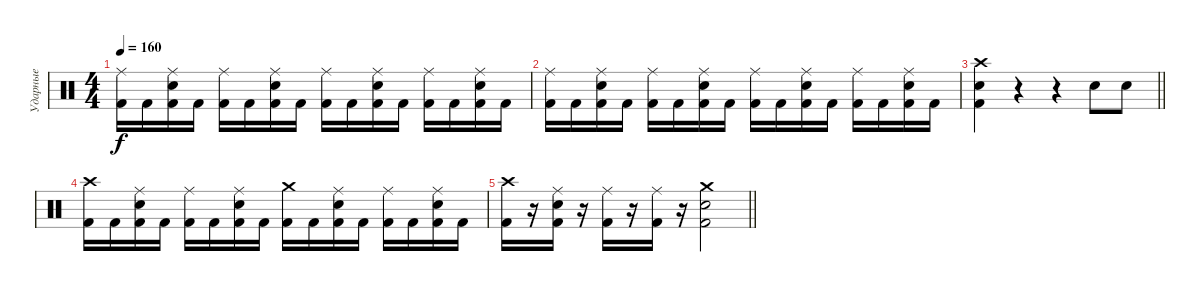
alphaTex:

\track ("Ударные" "Ударные") {instrument percussion}
\staff {score}
\articulation defaults
\ts (4 4)
\tempo 160
\clef neutral
\ks c
("Ride (middle)" "Kick (hit) 2").16{dy f} "Kick (hit) 2".16 ("Ride (middle)" "Electric Snare (hit)" "Kick (hit) 2").16 "Kick (hit) 2".16 ("Ride (middle)" "Kick (hit) 2").16 "Kick (hit) 2".16 ("Ride (middle)" "Electric Snare (hit)" "Kick (hit) 2").16 "Kick (hit) 2".16 ("Ride (middle)" "Kick (hit) 2").16 "Kick (hit) 2".16 ("Ride (middle)" "Electric Snare (hit)" "Kick (hit) 2").16 "Kick (hit) 2".16 ("Ride (middle)" "Kick (hit) 2").16 "Kick (hit) 2".16 ("Ride (middle)" "Electric Snare (hit)" "Kick (hit) 2").16 "Kick (hit) 2".16 |
("Ride (middle)" "Kick (hit) 2").16 "Kick (hit) 2".16 ("Ride (middle)" "Electric Snare (hit)" "Kick (hit) 2").16 "Kick (hit) 2".16 ("Ride (middle)" "Kick (hit) 2").16 "Kick (hit) 2".16 ("Ride (middle)" "Electric Snare (hit)" "Kick (hit) 2").16 "Kick (hit) 2".16 ("Ride (middle)" "Kick (hit) 2").16 "Kick (hit) 2".16 ("Ride (middle)" "Electric Snare (hit)" "Kick (hit) 2").16 "Kick (hit) 2".16 ("Ride (middle)" "Kick (hit) 2").16 "Kick (hit) 2".16 ("Ride (middle)" "Electric Snare (hit)" "Kick (hit) 2").16 "Kick (hit) 2".16 |
\barLineRight lightlight
("Crash high (hit)" "Electric Snare (hit)" "Kick (hit) 2").4 r.4 r.4 "Electric Snare (hit)".8 "Electric Snare (hit)".8 |
("Crash high (hit)" "Kick (hit) 2").16 "Kick (hit) 2".16 ("Ride (middle)" "Electric Snare (hit)" "Kick (hit) 2").16 "Kick (hit) 2".16 ("Ride (middle)" "Kick (hit) 2").16 "Kick (hit) 2".16 ("Ride (middle)" "Electric Snare (hit)" "Kick (hit) 2").16 "Kick (hit) 2".16 ("Crash medium (hit)" "Kick (hit) 2").16 "Kick (hit) 2".16 ("Ride (middle)" "Electric Snare (hit)" "Kick (hit) 2").16 "Kick (hit) 2".16 ("Ride (middle)" "Kick (hit) 2").16 "Kick (hit) 2".16 ("Ride (middle)" "Electric Snare (hit)" "Kick (hit) 2").16 "Kick (hit) 2".16 |
\barLineRight lightlight
("Crash high (hit)" "Kick (hit) 2").16 r.16 ("Ride (middle)" "Electric Snare (hit)" "Kick (hit) 2").16 r.16 ("Ride (middle)" "Kick (hit) 2").16 r.16 ("Ride (middle)" "Kick (hit) 2").16 r.16 ("Crash medium (hit)" "Electric Snare (hit)" "Kick (hit) 2").2
